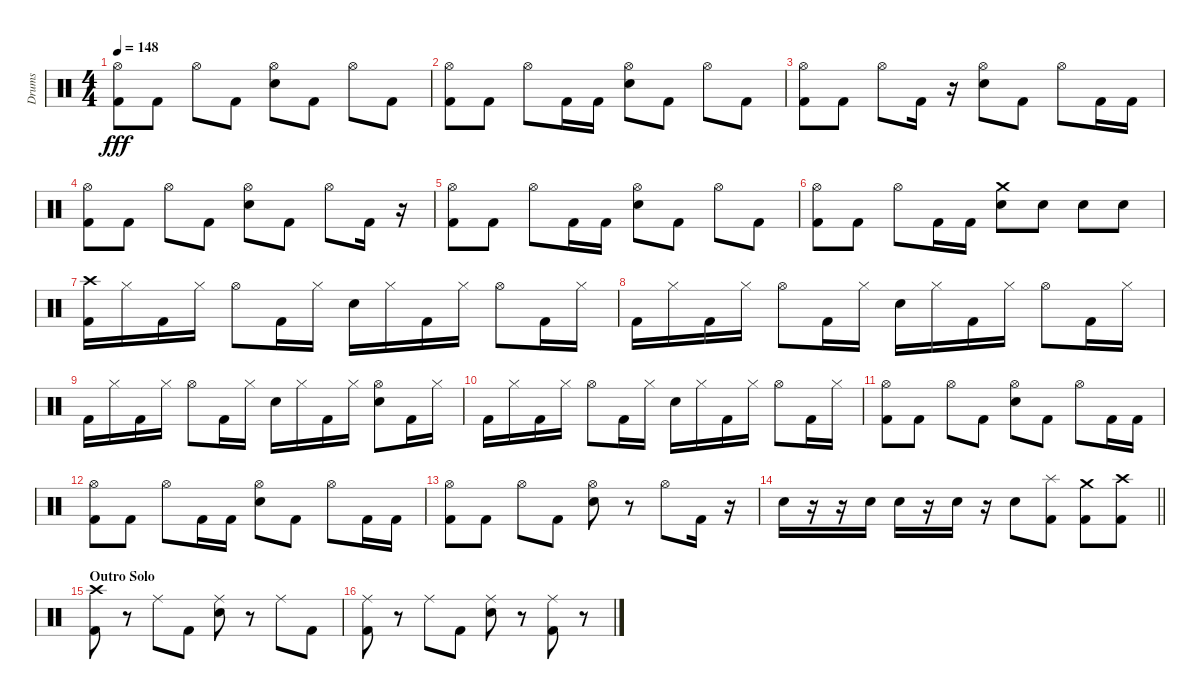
\track ("Drums" "Drums") {instrument percussion}
\staff {score}
\articulation defaults
\ts (4 4)
\tempo 148
\clef neutral
\ks c
("Hi-Hat (open)" "Kick (hit) 2").8{dy fff} "Kick (hit) 2".8 "Hi-Hat (open)".8 "Kick (hit) 2".8 ("Hi-Hat (open)" "Electric Snare (hit)").8 "Kick (hit) 2".8 "Hi-Hat (open)".8 "Kick (hit) 2".8 |
("Hi-Hat (open)" "Kick (hit) 2").8 "Kick (hit) 2".8 "Hi-Hat (open)".8 "Kick (hit) 2".16 "Kick (hit) 2".16 ("Hi-Hat (open)" "Electric Snare (hit)").8 "Kick (hit) 2".8 "Hi-Hat (open)".8 "Kick (hit) 2".8 |
("Hi-Hat (open)" "Kick (hit) 2").8 "Kick (hit) 2".8 "Hi-Hat (open)".8 "Kick (hit) 2".16 r.16 ("Hi-Hat (open)" "Electric Snare (hit)").8 "Kick (hit) 2".8 "Hi-Hat (open)".8 "Kick (hit) 2".16 "Kick (hit) 2".16 |
("Hi-Hat (open)" "Kick (hit) 2").8 "Kick (hit) 2".8 "Hi-Hat (open)".8 "Kick (hit) 2".8 ("Hi-Hat (open)" "Electric Snare (hit)").8 "Kick (hit) 2".8 "Hi-Hat (open)".8 "Kick (hit) 2".16 r.16 |
("Hi-Hat (open)" "Kick (hit) 2").8 "Kick (hit) 2".8 "Hi-Hat (open)".8 "Kick (hit) 2".16 "Kick (hit) 2".16 ("Hi-Hat (open)" "Electric Snare (hit)").8 "Kick (hit) 2".8 "Hi-Hat (open)".8 "Kick (hit) 2".8 |
("Hi-Hat (open)" "Kick (hit) 2").8 "Kick (hit) 2".8 "Hi-Hat (open)".8 "Kick (hit) 2".16 "Kick (hit) 2".16 ("Crash medium (hit)" "Electric Snare (hit)").8 "Electric Snare (hit)".8 "Electric Snare (hit)".8 "Electric Snare (hit)".8 |
("Crash high (hit)" "Kick (hit) 2").16 "Hi-Hat (closed)".16 "Kick (hit) 2".16 "Hi-Hat (closed)".16 "Hi-Hat (open)".8 "Kick (hit) 2".16 "Hi-Hat (closed)".16 "Electric Snare (hit)".16 "Hi-Hat (closed)".16 "Kick (hit) 2".16 "Hi-Hat (closed)".16 "Hi-Hat (open)".8 "Kick (hit) 2".16 "Hi-Hat (closed)".16 |
"Kick (hit) 2".16 "Hi-Hat (closed)".16 "Kick (hit) 2".16 "Hi-Hat (closed)".16 "Hi-Hat (open)".8 "Kick (hit) 2".16 "Hi-Hat (closed)".16 "Electric Snare (hit)".16 "Hi-Hat (closed)".16 "Kick (hit) 2".16 "Hi-Hat (closed)".16 "Hi-Hat (open)".8 "Kick (hit) 2".16 "Hi-Hat (closed)".16 |
"Kick (hit) 2".16 "Hi-Hat (closed)".16 "Kick (hit) 2".16 "Hi-Hat (closed)".16 "Hi-Hat (open)".8 "Kick (hit) 2".16 "Hi-Hat (closed)".16 "Electric Snare (hit)".16 "Hi-Hat (closed)".16 "Kick (hit) 2".16 "Hi-Hat (closed)".16 ("Hi-Hat (open)" "Electric Snare (hit)").8 "Kick (hit) 2".16 "Hi-Hat (closed)".16 |
"Kick (hit) 2".16 "Hi-Hat (closed)".16 "Kick (hit) 2".16 "Hi-Hat (closed)".16 "Hi-Hat (open)".8 "Kick (hit) 2".16 "Hi-Hat (closed)".16 "Electric Snare (hit)".16 "Hi-Hat (closed)".16 "Kick (hit) 2".16 "Hi-Hat (closed)".16 "Hi-Hat (open)".8 "Kick (hit) 2".16 "Hi-Hat (closed)".16 |
("Hi-Hat (open)" "Kick (hit) 2").8 "Kick (hit) 2".8 "Hi-Hat (open)".8 "Kick (hit) 2".8 ("Hi-Hat (open)" "Electric Snare (hit)").8 "Kick (hit) 2".8 "Hi-Hat (open)".8 "Kick (hit) 2".16 "Kick (hit) 2".16 |
("Hi-Hat (open)" "Kick (hit) 2").8 "Kick (hit) 2".8 "Hi-Hat (open)".8 "Kick (hit) 2".16 "Kick (hit) 2".16 ("Hi-Hat (open)" "Electric Snare (hit)").8 "Kick (hit) 2".8 "Hi-Hat (open)".8 "Kick (hit) 2".16 "Kick (hit) 2".16 |
("Hi-Hat (open)" "Kick (hit) 2").8 "Kick (hit) 2".8 "Hi-Hat (open)".8 "Kick (hit) 2".8 ("Hi-Hat (open)" "Electric Snare (hit)").8 r.8 "Hi-Hat (open)".8 "Kick (hit) 2".16 r.16 |
\barLineRight lightlight "Electric Snare (hit)".16
r.16 r.16 "Electric Snare (hit)".16 "Electric Snare (hit)".16 r.16 "Electric Snare (hit)".16 r.16 "Electric Snare (hit)".8 ("Splash (hit)" "Kick (hit) 2").8 ("Crash medium (hit)" "Kick (hit) 2").8 ("Crash high (hit)" "Kick (hit) 2").8 |
\section ("" "Outro Solo")
("Crash high (hit)" "Kick (hit) 2").8 r.8 "Ride (middle)".8 "Kick (hit) 2".8 ("Ride (middle)" "Electric Snare (hit)").8 r.8 "Ride (middle)".8 "Kick (hit) 2".8 |
("Ride (middle)" "Kick (hit) 2").8 r.8 "Ride (middle)".8 "Kick (hit) 2".8 ("Ride (middle)" "Electric Snare (hit)").8 r.8 ("Ride (middle)" "Kick (hit) 2").8 r.8
